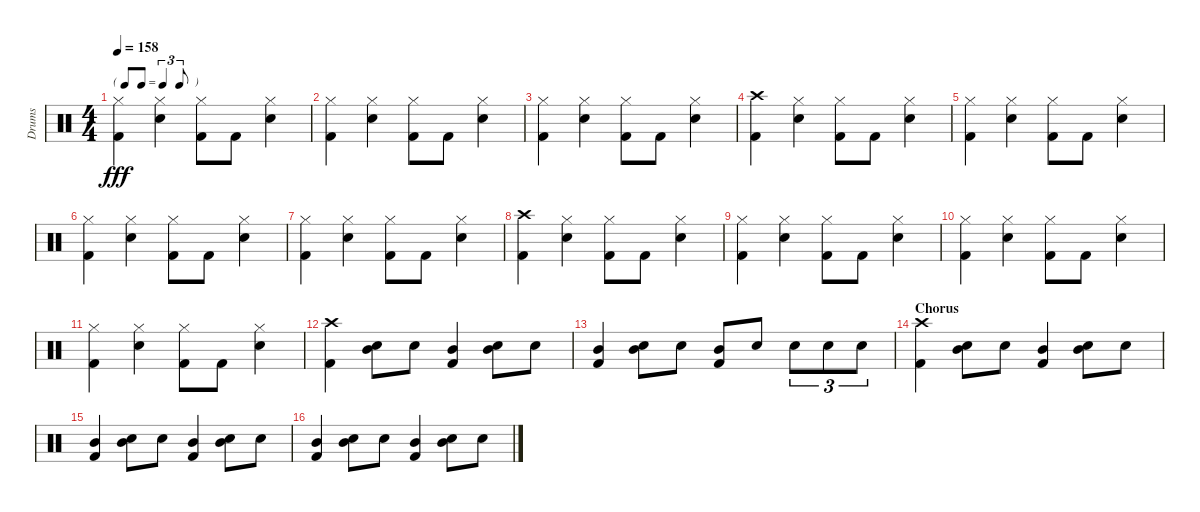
\track ("Drums" "Drums") {instrument percussion}
\staff {score}
\articulation defaults
\ts (4 4)
\tf triplet8th
\tempo 158
\clef neutral
\ks c
("Hi-Hat (closed)" "Kick (hit) 2").4{dy fff} ("Hi-Hat (closed)" "Snare (hit) 2").4 ("Hi-Hat (closed)" "Kick (hit) 2").8 "Kick (hit) 2".8 ("Hi-Hat (closed)" "Snare (hit) 2").4 |
("Hi-Hat (closed)" "Kick (hit) 2").4 ("Hi-Hat (closed)" "Snare (hit) 2").4 ("Hi-Hat (closed)" "Kick (hit) 2").8 "Kick (hit) 2".8 ("Hi-Hat (closed)" "Snare (hit) 2").4 |
("Hi-Hat (closed)" "Kick (hit) 2").4 ("Hi-Hat (closed)" "Snare (hit) 2").4 ("Hi-Hat (closed)" "Kick (hit) 2").8 "Kick (hit) 2".8 ("Hi-Hat (closed)" "Snare (hit) 2").4 |
("Crash high (hit)" "Kick (hit) 2").4 ("Hi-Hat (closed)" "Snare (hit) 2").4 ("Hi-Hat (closed)" "Kick (hit) 2").8 "Kick (hit) 2".8 ("Hi-Hat (closed)" "Snare (hit) 2").4 |
("Hi-Hat (closed)" "Kick (hit) 2").4 ("Hi-Hat (closed)" "Snare (hit) 2").4 ("Hi-Hat (closed)" "Kick (hit) 2").8 "Kick (hit) 2".8 ("Hi-Hat (closed)" "Snare (hit) 2").4 |
("Hi-Hat (closed)" "Kick (hit) 2").4 ("Hi-Hat (closed)" "Snare (hit) 2").4 ("Hi-Hat (closed)" "Kick (hit) 2").8 "Kick (hit) 2".8 ("Hi-Hat (closed)" "Snare (hit) 2").4 |
("Hi-Hat (closed)" "Kick (hit) 2").4 ("Hi-Hat (closed)" "Snare (hit) 2").4 ("Hi-Hat (closed)" "Kick (hit) 2").8 "Kick (hit) 2".8 ("Hi-Hat (closed)" "Snare (hit) 2").4 |
("Crash high (hit)" "Kick (hit) 2").4 ("Hi-Hat (closed)" "Snare (hit) 2").4 ("Hi-Hat (closed)" "Kick (hit) 2").8 "Kick (hit) 2".8 ("Hi-Hat (closed)" "Snare (hit) 2").4 |
("Hi-Hat (closed)" "Kick (hit) 2").4 ("Hi-Hat (closed)" "Snare (hit) 2").4 ("Hi-Hat (closed)" "Kick (hit) 2").8 "Kick (hit) 2".8 ("Hi-Hat (closed)" "Snare (hit) 2").4 |
("Hi-Hat (closed)" "Kick (hit) 2").4 ("Hi-Hat (closed)" "Snare (hit) 2").4 ("Hi-Hat (closed)" "Kick (hit) 2").8 "Kick (hit) 2".8 ("Hi-Hat (closed)" "Snare (hit) 2").4 |
("Hi-Hat (closed)" "Kick (hit) 2").4 ("Hi-Hat (closed)" "Snare (hit) 2").4 ("Hi-Hat (closed)" "Kick (hit) 2").8 "Kick (hit) 2".8 ("Hi-Hat (closed)" "Snare (hit) 2").4 |
("Crash high (hit)" "Kick (hit) 2").4 ("Mid Tom (hit)" "Snare (hit) 2").8 "Snare (hit) 2".8 ("Mid Tom (hit)" "Kick (hit) 2").4 ("Mid Tom (hit)" "Snare (hit) 2").8 "Snare (hit) 2".8 |
("Mid Tom (hit)" "Kick (hit) 2").4 ("Mid Tom (hit)" "Snare (hit) 2").8 "Snare (hit) 2".8 ("Mid Tom (hit)" "Kick (hit) 2").8 "Snare (hit) 2".8 "Snare (hit) 2".8{tu (3 2)} "Snare (hit) 2".8{tu (3 2)} "Snare (hit) 2".8{tu (3 2)} |
\section ("" "Chorus")
("Crash high (hit)" "Kick (hit) 2").4 ("Mid Tom (hit)" "Snare (hit) 2").8 "Snare (hit) 2".8 ("Mid Tom (hit)" "Kick (hit) 2").4 ("Mid Tom (hit)" "Snare (hit) 2").8 "Snare (hit) 2".8 |
("Mid Tom (hit)" "Kick (hit) 2").4 ("Mid Tom (hit)" "Snare (hit) 2").8 "Snare (hit) 2".8 ("Mid Tom (hit)" "Kick (hit) 2").4 ("Mid Tom (hit)" "Snare (hit) 2").8 "Snare (hit) 2".8 |
("Mid Tom (hit)" "Kick (hit) 2").4 ("Mid Tom (hit)" "Snare (hit) 2").8 "Snare (hit) 2".8 ("Mid Tom (hit)" "Kick (hit) 2").4 ("Mid Tom (hit)" "Snare (hit) 2").8 "Snare (hit) 2".8
